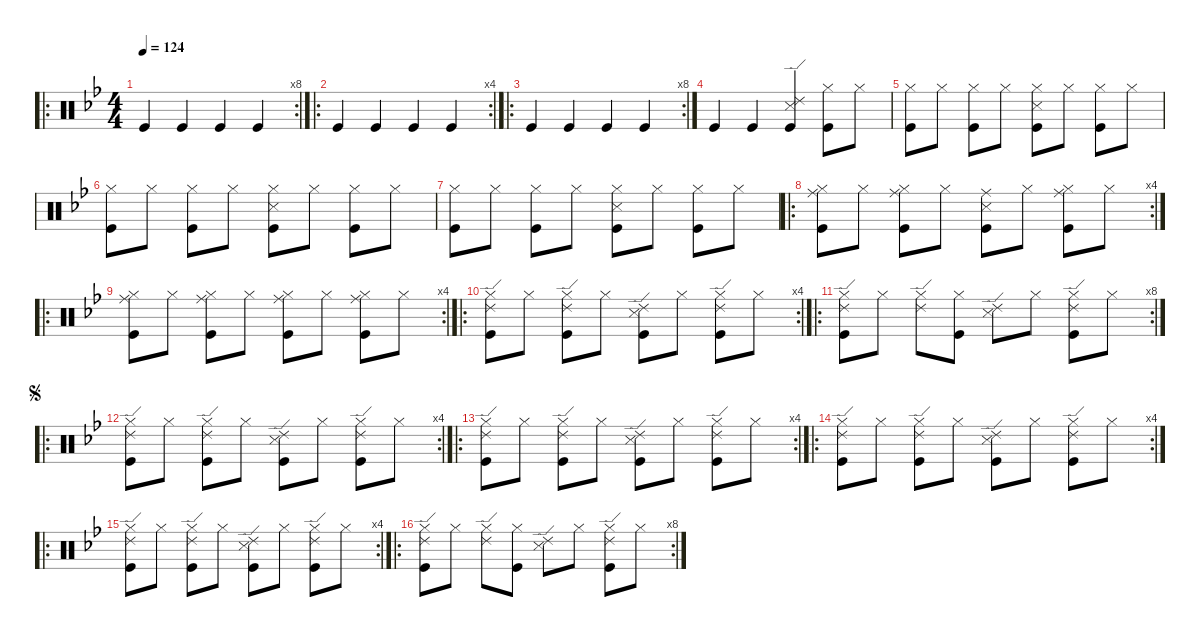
\defaultSystemsLayout 4
\hideDynamics
\bracketExtendMode nobrackets
\singleTrackTrackNamePolicy hidden
\multiTrackTrackNamePolicy hidden
\firstSystemTrackNameMode fullname
\firstSystemTrackNameOrientation horizontal
\otherSystemsTrackNameOrientation horizontal
\track ("Percussion" "drm.") {instrument percussion}
\staff {score}
\articulation defaults
\ro
\rc 8
\ts (4 4)
\beaming (8 2 2 2 2)
\tempo 124
\clef neutral
\ks gminor "Kick (hit)"{acc forcenatural}.4{dy f beam Up} "Kick (hit)"{acc forcenatural}.4{beam Up} "Kick (hit)"{acc forcenatural}.4{beam Up} "Kick (hit)"{acc forcenatural}.4{beam Up}
|
\ro
\rc 4 "Kick (hit)"{acc forcenatural}.4{beam Up} "Kick (hit)"{acc forcenatural}.4{beam Up} "Kick (hit)"{acc forcenatural}.4{beam Up} "Kick (hit)"{acc forcenatural}.4{beam Up}
|
\ro
\rc 8 "Kick (hit)"{acc forcenatural}.4{beam Up} "Kick (hit)"{acc forcenatural}.4{beam Up} "Kick (hit)"{acc forcenatural}.4{beam Up} "Kick (hit)"{acc forcenatural}.4{beam Up}
|
"Kick (hit)"{acc forcenatural}.4{beam Up} "Kick (hit)"{acc forcenatural}.4{beam Up} ("Ride (edge) 2"{acc forcenatural} "Snare (side stick) 3"{acc forcenatural} "Kick (hit)"{acc forcenatural}).4{beam Up} ("Hi-Hat (closed)"{acc forcenatural} "Kick (hit)"{acc forcenatural}).8{beam Down} "Hi-Hat (closed)"{acc forcenatural}.8{beam Down} |
("Hi-Hat (closed)"{acc forcenatural} "Kick (hit)"{acc forcenatural}).8{beam Down} "Hi-Hat (closed)"{acc forcenatural}.8{beam Down} ("Hi-Hat (closed)"{acc forcenatural} "Kick (hit)"{acc forcenatural}).8{beam Down} "Hi-Hat (closed)"{acc forcenatural}.8{beam Down} ("Hi-Hat (closed)"{acc forcenatural} "Snare (side stick) 3"{acc forcenatural} "Kick (hit)"{acc forcenatural}).8{beam Down} "Hi-Hat (closed)"{acc forcenatural}.8{beam Down} ("Hi-Hat (closed)"{acc forcenatural} "Kick (hit)"{acc forcenatural}).8{beam Down} "Hi-Hat (closed)"{acc forcenatural}.8{beam Down} |
("Hi-Hat (closed)"{acc forcenatural} "Kick (hit)"{acc forcenatural}).8{beam Down} "Hi-Hat (closed)"{acc forcenatural}.8{beam Down} ("Hi-Hat (closed)"{acc forcenatural} "Kick (hit)"{acc forcenatural}).8{beam Down} "Hi-Hat (closed)"{acc forcenatural}.8{beam Down} ("Hi-Hat (closed)"{acc forcenatural} "Snare (side stick) 3"{acc forcenatural} "Kick (hit)"{acc forcenatural}).8{beam Down} "Hi-Hat (closed)"{acc forcenatural}.8{beam Down} ("Hi-Hat (closed)"{acc forcenatural} "Kick (hit)"{acc forcenatural}).8{beam Down} "Hi-Hat (closed)"{acc forcenatural}.8{beam Down} |
("Hi-Hat (closed)"{acc forcenatural} "Kick (hit)"{acc forcenatural}).8{beam Down} "Hi-Hat (closed)"{acc forcenatural}.8{beam Down} ("Hi-Hat (closed)"{acc forcenatural} "Kick (hit)"{acc forcenatural}).8{beam Down} "Hi-Hat (closed)"{acc forcenatural}.8{beam Down} ("Hi-Hat (closed)"{acc forcenatural} "Snare (side stick) 3"{acc forcenatural} "Kick (hit)"{acc forcenatural}).8{beam Down} "Hi-Hat (closed)"{acc forcenatural}.8{beam Down} ("Hi-Hat (closed)"{acc forcenatural} "Kick (hit)"{acc forcenatural}).8{beam Down} "Hi-Hat (closed)"{acc forcenatural}.8{beam Down} |
\ro
\rc 4
("Ride (middle)"{acc forcenatural} "Hi-Hat (closed)"{acc forcenatural} "Kick (hit)"{acc forcenatural}).8{beam Down} "Hi-Hat (closed)"{acc forcenatural}.8{beam Down} ("Ride (middle)"{acc forcenatural} "Hi-Hat (closed)"{acc forcenatural} "Kick (hit)"{acc forcenatural}).8{beam Down} "Hi-Hat (closed)"{acc forcenatural}.8{beam Down} ("Ride (middle)"{acc forcenatural} "Snare (side stick) 3"{acc forcenatural} "Kick (hit)"{acc forcenatural}).8{beam Down} "Hi-Hat (closed)"{acc forcenatural}.8{beam Down} ("Ride (middle)"{acc forcenatural} "Hi-Hat (closed)"{acc forcenatural} "Kick (hit)"{acc forcenatural}).8{beam Down} "Hi-Hat (closed)"{acc forcenatural}.8{beam Down} |
\ro
\rc 4
("Ride (middle)"{acc forcenatural} "Hi-Hat (closed)"{acc forcenatural} "Kick (hit)"{acc forcenatural}).8{beam Down} "Hi-Hat (closed)"{acc forcenatural}.8{beam Down} ("Ride (middle)"{acc forcenatural} "Hi-Hat (closed)"{acc forcenatural} "Kick (hit)"{acc forcenatural}).8{beam Down} "Hi-Hat (closed)"{acc forcenatural}.8{beam Down} ("Ride (middle)"{acc forcenatural} "Hi-Hat (closed)"{acc forcenatural} "Kick (hit)"{acc forcenatural}).8{beam Down} "Hi-Hat (closed)"{acc forcenatural}.8{beam Down} ("Ride (middle)"{acc forcenatural} "Hi-Hat (closed)"{acc forcenatural} "Kick (hit)"{acc forcenatural}).8{beam Down} "Hi-Hat (closed)"{acc forcenatural}.8{beam Down} |
\ro
\rc 4
("Ride (edge) 2"{acc forcenatural} "Hi-Hat (closed)"{acc forcenatural} "Kick (hit)"{acc forcenatural}).8{beam Down} "Hi-Hat (closed)"{acc forcenatural}.8{beam Down} ("Ride (edge) 2"{acc forcenatural} "Hi-Hat (closed)"{acc forcenatural} "Kick (hit)"{acc forcenatural}).8{beam Down} "Hi-Hat (closed)"{acc forcenatural}.8{beam Down} ("Ride (edge) 2"{acc forcenatural} "Snare (side stick) 3"{acc forcenatural} "Kick (hit)"{acc forcenatural}).8{beam Down} "Hi-Hat (closed)"{acc forcenatural}.8{beam Down} ("Ride (edge) 2"{acc forcenatural} "Hi-Hat (closed)"{acc forcenatural} "Kick (hit)"{acc forcenatural}).8{beam Down} "Hi-Hat (closed)"{acc forcenatural}.8{beam Down} |
\ro
\rc 8
("Ride (edge) 2"{acc forcenatural} "Hi-Hat (closed)"{acc forcenatural} "Kick (hit)"{acc forcenatural}).8{beam Down} "Hi-Hat (closed)"{acc forcenatural}.8{beam Down} ("Ride (edge) 2"{acc forcenatural} "Hi-Hat (closed)"{acc forcenatural}).8{beam Down} ("Hi-Hat (closed)"{acc forcenatural} "Kick (hit)"{acc forcenatural}).8{beam Down} ("Ride (edge) 2"{acc forcenatural} "Snare (side stick) 3"{acc forcenatural}).8{beam Down} "Hi-Hat (closed)"{acc forcenatural}.8{beam Down} ("Ride (edge) 2"{acc forcenatural} "Hi-Hat (closed)"{acc forcenatural} "Kick (hit)"{acc forcenatural}).8{beam Down} "Hi-Hat (closed)"{acc forcenatural}.8{beam Down} |
\ro
\rc 4
\jump segno
("Ride (edge) 2"{acc forcenatural} "Hi-Hat (closed)"{acc forcenatural} "Kick (hit)"{acc forcenatural}).8{beam Down} "Hi-Hat (closed)"{acc forcenatural}.8{beam Down} ("Ride (edge) 2"{acc forcenatural} "Hi-Hat (closed)"{acc forcenatural} "Kick (hit)"{acc forcenatural}).8{beam Down} "Hi-Hat (closed)"{acc forcenatural}.8{beam Down} ("Ride (edge) 2"{acc forcenatural} "Snare (side stick) 3"{acc forcenatural} "Kick (hit)"{acc forcenatural}).8{beam Down} "Hi-Hat (closed)"{acc forcenatural}.8{beam Down} ("Ride (edge) 2"{acc forcenatural} "Hi-Hat (closed)"{acc forcenatural} "Kick (hit)"{acc forcenatural}).8{beam Down} "Hi-Hat (closed)"{acc forcenatural}.8{beam Down} |
\ro
\rc 4
("Ride (edge) 2"{acc forcenatural} "Hi-Hat (closed)"{acc forcenatural} "Kick (hit)"{acc forcenatural}).8{beam Down} "Hi-Hat (closed)"{acc forcenatural}.8{beam Down} ("Ride (edge) 2"{acc forcenatural} "Hi-Hat (closed)"{acc forcenatural} "Kick (hit)"{acc forcenatural}).8{beam Down} "Hi-Hat (closed)"{acc forcenatural}.8{beam Down} ("Ride (edge) 2"{acc forcenatural} "Snare (side stick) 3"{acc forcenatural} "Kick (hit)"{acc forcenatural}).8{beam Down} "Hi-Hat (closed)"{acc forcenatural}.8{beam Down} ("Ride (edge) 2"{acc forcenatural} "Hi-Hat (closed)"{acc forcenatural} "Kick (hit)"{acc forcenatural}).8{beam Down} "Hi-Hat (closed)"{acc forcenatural}.8{beam Down} |
\ro
\rc 4
("Ride (edge) 2"{acc forcenatural} "Hi-Hat (closed)"{acc forcenatural} "Kick (hit)"{acc forcenatural}).8{beam Down} "Hi-Hat (closed)"{acc forcenatural}.8{beam Down} ("Ride (edge) 2"{acc forcenatural} "Hi-Hat (closed)"{acc forcenatural} "Kick (hit)"{acc forcenatural}).8{beam Down} "Hi-Hat (closed)"{acc forcenatural}.8{beam Down} ("Ride (edge) 2"{acc forcenatural} "Snare (side stick) 3"{acc forcenatural} "Kick (hit)"{acc forcenatural}).8{beam Down} "Hi-Hat (closed)"{acc forcenatural}.8{beam Down} ("Ride (edge) 2"{acc forcenatural} "Hi-Hat (closed)"{acc forcenatural} "Kick (hit)"{acc forcenatural}).8{beam Down} "Hi-Hat (closed)"{acc forcenatural}.8{beam Down} |
\ro
\rc 4
("Ride (edge) 2"{acc forcenatural} "Hi-Hat (closed)"{acc forcenatural} "Kick (hit)"{acc forcenatural}).8{beam Down} "Hi-Hat (closed)"{acc forcenatural}.8{beam Down} ("Ride (edge) 2"{acc forcenatural} "Hi-Hat (closed)"{acc forcenatural} "Kick (hit)"{acc forcenatural}).8{beam Down} "Hi-Hat (closed)"{acc forcenatural}.8{beam Down} ("Ride (edge) 2"{acc forcenatural} "Snare (side stick) 3"{acc forcenatural} "Kick (hit)"{acc forcenatural}).8{beam Down} "Hi-Hat (closed)"{acc forcenatural}.8{beam Down} ("Ride (edge) 2"{acc forcenatural} "Hi-Hat (closed)"{acc forcenatural} "Kick (hit)"{acc forcenatural}).8{beam Down} "Hi-Hat (closed)"{acc forcenatural}.8{beam Down} |
\ro
\rc 8
("Ride (edge) 2"{acc forcenatural} "Hi-Hat (closed)"{acc forcenatural} "Kick (hit)"{acc forcenatural}).8{beam Down} "Hi-Hat (closed)"{acc forcenatural}.8{beam Down} ("Ride (edge) 2"{acc forcenatural} "Hi-Hat (closed)"{acc forcenatural}).8{beam Down} ("Hi-Hat (closed)"{acc forcenatural} "Kick (hit)"{acc forcenatural}).8{beam Down} ("Ride (edge) 2"{acc forcenatural} "Snare (side stick) 3"{acc forcenatural}).8{beam Down} "Hi-Hat (closed)"{acc forcenatural}.8{beam Down} ("Ride (edge) 2"{acc forcenatural} "Hi-Hat (closed)"{acc forcenatural} "Kick (hit)"{acc forcenatural}).8{beam Down} "Hi-Hat (closed)"{acc forcenatural}.8{beam Down}
